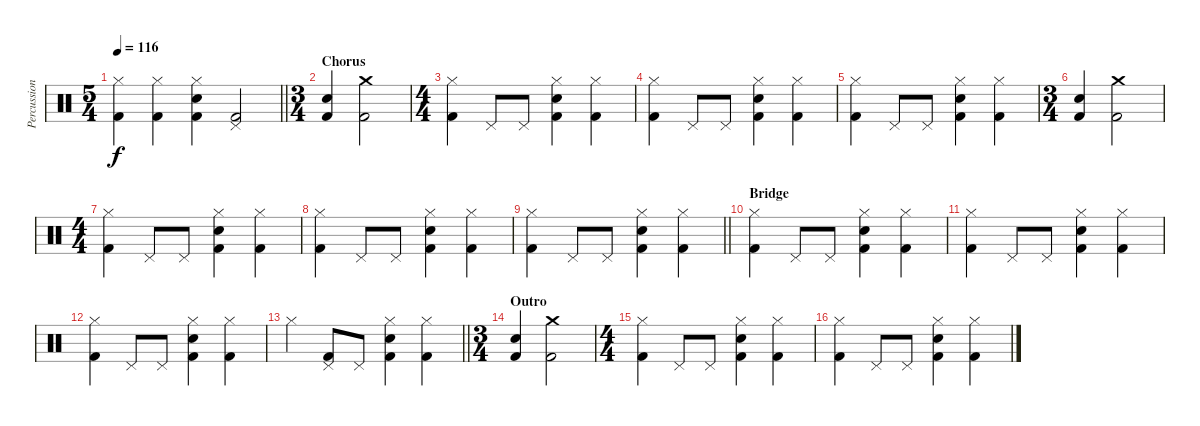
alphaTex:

\track ("Percussion" "Percussion") {instrument percussion}
\staff {score}
\articulation defaults
\ts (5 4)
\tempo 116
\clef neutral
\barLineRight lightlight
\ks c
("Hi-Hat (closed)" "Kick (hit) 2").4{dy f} ("Hi-Hat (closed)" "Kick (hit) 2").4 ("Hi-Hat (closed)" "Electric Snare (hit)" "Kick (hit) 2").4 ("Pedal Hi-Hat (hit)" "Kick (hit) 2").2 |
\ts (3 4)
\section ("" "Chorus")
("Electric Snare (hit)" "Kick (hit) 2").4 ("Crash medium (hit)" "Kick (hit) 2").2 |
\ts (4 4)
("Hi-Hat (closed)" "Kick (hit) 2").4 "Pedal Hi-Hat (hit)".8 "Pedal Hi-Hat (hit)".8 ("Hi-Hat (closed)" "Electric Snare (hit)" "Kick (hit) 2").4 ("Hi-Hat (closed)" "Kick (hit) 2").4 |
("Hi-Hat (closed)" "Kick (hit) 2").4 "Pedal Hi-Hat (hit)".8 "Pedal Hi-Hat (hit)".8 ("Hi-Hat (closed)" "Electric Snare (hit)" "Kick (hit) 2").4 ("Hi-Hat (closed)" "Kick (hit) 2").4 |
("Hi-Hat (closed)" "Kick (hit) 2").4 "Pedal Hi-Hat (hit)".8 "Pedal Hi-Hat (hit)".8 ("Hi-Hat (closed)" "Electric Snare (hit)" "Kick (hit) 2").4 ("Hi-Hat (closed)" "Kick (hit) 2").4 |
\ts (3 4)
("Electric Snare (hit)" "Kick (hit) 2").4 ("Crash medium (hit)" "Kick (hit) 2").2 |
\ts (4 4)
("Hi-Hat (closed)" "Kick (hit) 2").4 "Pedal Hi-Hat (hit)".8 "Pedal Hi-Hat (hit)".8 ("Hi-Hat (closed)" "Electric Snare (hit)" "Kick (hit) 2").4 ("Hi-Hat (closed)" "Kick (hit) 2").4 |
("Hi-Hat (closed)" "Kick (hit) 2").4 "Pedal Hi-Hat (hit)".8 "Pedal Hi-Hat (hit)".8 ("Hi-Hat (closed)" "Electric Snare (hit)" "Kick (hit) 2").4 ("Hi-Hat (closed)" "Kick (hit) 2").4 |
\barLineRight lightlight
("Hi-Hat (closed)" "Kick (hit) 2").4 "Pedal Hi-Hat (hit)".8 "Pedal Hi-Hat (hit)".8 ("Hi-Hat (closed)" "Electric Snare (hit)" "Kick (hit) 2").4 ("Hi-Hat (closed)" "Kick (hit) 2").4 |
\section ("" "Bridge")
("Hi-Hat (closed)" "Kick (hit) 2").4 "Pedal Hi-Hat (hit)".8 "Pedal Hi-Hat (hit)".8 ("Hi-Hat (closed)" "Electric Snare (hit)" "Kick (hit) 2").4 ("Hi-Hat (closed)" "Kick (hit) 2").4 |
("Hi-Hat (closed)" "Kick (hit) 2").4 "Pedal Hi-Hat (hit)".8 "Pedal Hi-Hat (hit)".8 ("Hi-Hat (closed)" "Electric Snare (hit)" "Kick (hit) 2").4 ("Hi-Hat (closed)" "Kick (hit) 2").4 |
("Hi-Hat (closed)" "Kick (hit) 2").4 "Pedal Hi-Hat (hit)".8 "Pedal Hi-Hat (hit)".8 ("Hi-Hat (closed)" "Electric Snare (hit)" "Kick (hit) 2").4 ("Hi-Hat (closed)" "Kick (hit) 2").4 |
\barLineRight lightlight "Hi-Hat (closed)".4
("Pedal Hi-Hat (hit)" "Kick (hit) 2").8 "Pedal Hi-Hat (hit)".8 ("Hi-Hat (closed)" "Electric Snare (hit)" "Kick (hit) 2").4 ("Hi-Hat (closed)" "Kick (hit) 2").4 |
\ts (3 4)
\section ("" "Outro")
("Electric Snare (hit)" "Kick (hit) 2").4 ("Crash medium (hit)" "Kick (hit) 2").2 |
\ts (4 4)
("Hi-Hat (closed)" "Kick (hit) 2").4 "Pedal Hi-Hat (hit)".8 "Pedal Hi-Hat (hit)".8 ("Hi-Hat (closed)" "Electric Snare (hit)" "Kick (hit) 2").4 ("Hi-Hat (closed)" "Kick (hit) 2").4 |
("Hi-Hat (closed)" "Kick (hit) 2").4 "Pedal Hi-Hat (hit)".8 "Pedal Hi-Hat (hit)".8 ("Hi-Hat (closed)" "Electric Snare (hit)" "Kick (hit) 2").4 ("Hi-Hat (closed)" "Kick (hit) 2").4
